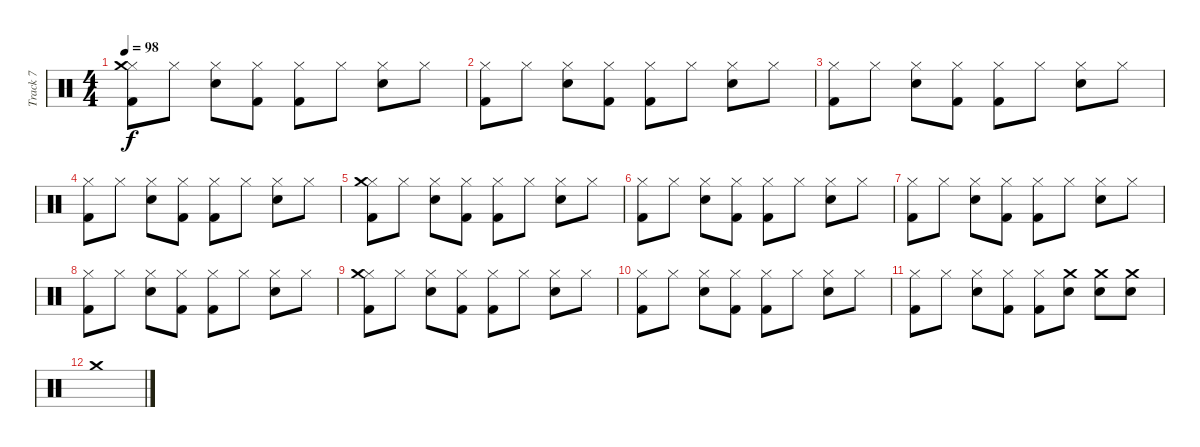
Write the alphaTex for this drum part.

\track ("Track 7" "Track 7") {instrument percussion}
\staff {score}
\articulation defaults
\ts (4 4)
\tempo 98
\clef neutral
\ks c
("Hi-Hat (closed)" "Crash medium (hit)" "Kick (hit) 2").8{dy f} "Hi-Hat (closed)".8 ("Hi-Hat (closed)" "Electric Snare (hit)").8 ("Hi-Hat (closed)" "Kick (hit) 2").8 ("Hi-Hat (closed)" "Kick (hit) 2").8 "Hi-Hat (closed)".8 ("Hi-Hat (closed)" "Electric Snare (hit)").8 "Hi-Hat (closed)".8 |
("Hi-Hat (closed)" "Kick (hit) 2").8 "Hi-Hat (closed)".8 ("Hi-Hat (closed)" "Electric Snare (hit)").8 ("Hi-Hat (closed)" "Kick (hit) 2").8 ("Hi-Hat (closed)" "Kick (hit) 2").8 "Hi-Hat (closed)".8 ("Hi-Hat (closed)" "Electric Snare (hit)").8 "Hi-Hat (closed)".8 |
("Hi-Hat (closed)" "Kick (hit) 2").8 "Hi-Hat (closed)".8 ("Hi-Hat (closed)" "Electric Snare (hit)").8 ("Hi-Hat (closed)" "Kick (hit) 2").8 ("Hi-Hat (closed)" "Kick (hit) 2").8 "Hi-Hat (closed)".8 ("Hi-Hat (closed)" "Electric Snare (hit)").8 "Hi-Hat (closed)".8 |
("Hi-Hat (closed)" "Kick (hit) 2").8 "Hi-Hat (closed)".8 ("Hi-Hat (closed)" "Electric Snare (hit)").8 ("Hi-Hat (closed)" "Kick (hit) 2").8 ("Hi-Hat (closed)" "Kick (hit) 2").8 "Hi-Hat (closed)".8 ("Hi-Hat (closed)" "Electric Snare (hit)").8 "Hi-Hat (closed)".8 |
("Hi-Hat (closed)" "Crash medium (hit)" "Kick (hit) 2").8 "Hi-Hat (closed)".8 ("Hi-Hat (closed)" "Electric Snare (hit)").8 ("Hi-Hat (closed)" "Kick (hit) 2").8 ("Hi-Hat (closed)" "Kick (hit) 2").8 "Hi-Hat (closed)".8 ("Hi-Hat (closed)" "Electric Snare (hit)").8 "Hi-Hat (closed)".8 |
("Hi-Hat (closed)" "Kick (hit) 2").8 "Hi-Hat (closed)".8 ("Hi-Hat (closed)" "Electric Snare (hit)").8 ("Hi-Hat (closed)" "Kick (hit) 2").8 ("Hi-Hat (closed)" "Kick (hit) 2").8 "Hi-Hat (closed)".8 ("Hi-Hat (closed)" "Electric Snare (hit)").8 "Hi-Hat (closed)".8 |
("Hi-Hat (closed)" "Kick (hit) 2").8 "Hi-Hat (closed)".8 ("Hi-Hat (closed)" "Electric Snare (hit)").8 ("Hi-Hat (closed)" "Kick (hit) 2").8 ("Hi-Hat (closed)" "Kick (hit) 2").8 "Hi-Hat (closed)".8 ("Hi-Hat (closed)" "Electric Snare (hit)").8 "Hi-Hat (closed)".8 |
("Hi-Hat (closed)" "Kick (hit) 2").8 "Hi-Hat (closed)".8 ("Hi-Hat (closed)" "Electric Snare (hit)").8 ("Hi-Hat (closed)" "Kick (hit) 2").8 ("Hi-Hat (closed)" "Kick (hit) 2").8 "Hi-Hat (closed)".8 ("Hi-Hat (closed)" "Electric Snare (hit)").8 "Hi-Hat (closed)".8 |
("Hi-Hat (closed)" "Crash medium (hit)" "Kick (hit) 2").8 "Hi-Hat (closed)".8 ("Hi-Hat (closed)" "Electric Snare (hit)").8 ("Hi-Hat (closed)" "Kick (hit) 2").8 ("Hi-Hat (closed)" "Kick (hit) 2").8 "Hi-Hat (closed)".8 ("Hi-Hat (closed)" "Electric Snare (hit)").8 "Hi-Hat (closed)".8 |
("Hi-Hat (closed)" "Kick (hit) 2").8 "Hi-Hat (closed)".8 ("Hi-Hat (closed)" "Electric Snare (hit)").8 ("Hi-Hat (closed)" "Kick (hit) 2").8 ("Hi-Hat (closed)" "Kick (hit) 2").8 "Hi-Hat (closed)".8 ("Hi-Hat (closed)" "Electric Snare (hit)").8 "Hi-Hat (closed)".8 |
("Hi-Hat (closed)" "Kick (hit) 2").8 "Hi-Hat (closed)".8 ("Hi-Hat (closed)" "Electric Snare (hit)").8 ("Hi-Hat (closed)" "Kick (hit) 2").8 ("Hi-Hat (closed)" "Kick (hit) 2").8 ("Crash medium (hit)" "Electric Snare (hit)").8 ("Crash medium (hit)" "Electric Snare (hit)").8 ("Crash medium (hit)" "Electric Snare (hit)").8 |
"Crash medium (hit)".1
